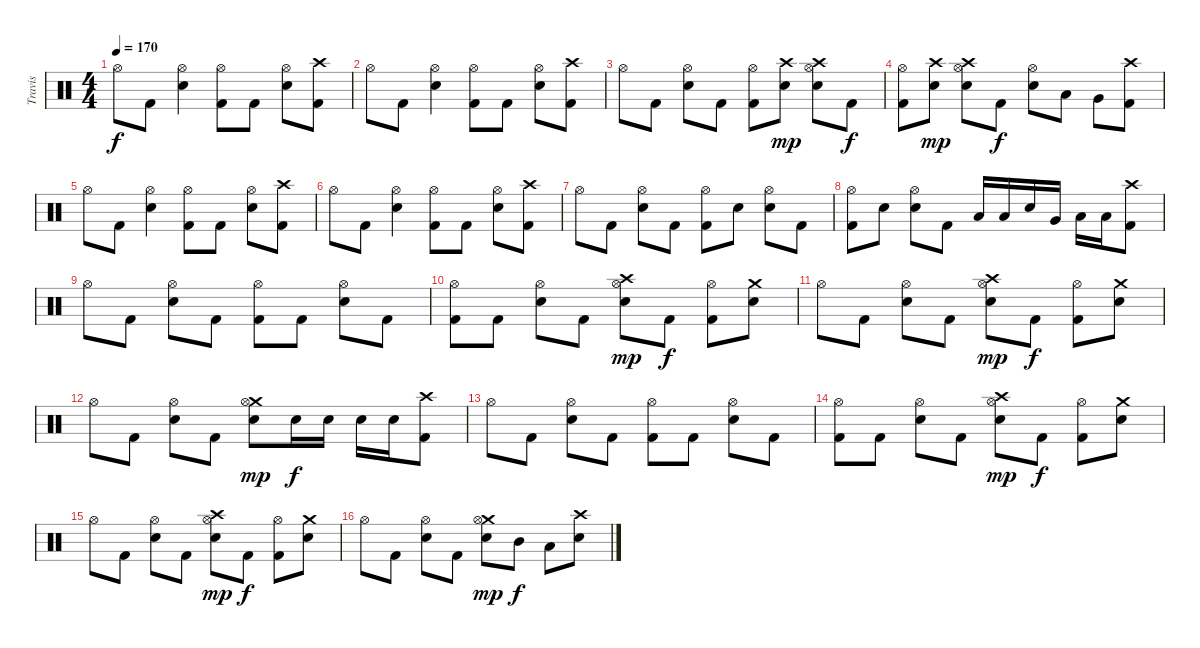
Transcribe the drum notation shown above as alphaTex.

\track ("Travis" "Travis") {instrument percussion}
\staff {score}
\articulation defaults
\ts (4 4)
\tempo 170
\clef neutral
\ks c "Hi-Hat (open)".8{dy f} "Kick (hit) 2".8
("Hi-Hat (open)" "Snare (hit) 2").4 ("Hi-Hat (open)" "Kick (hit) 2").8 "Kick (hit) 2".8 ("Hi-Hat (open)" "Snare (hit) 2").8 ("Crash high (hit)" "Kick (hit) 2").8 |
"Hi-Hat (open)".8 "Kick (hit) 2".8 ("Hi-Hat (open)" "Snare (hit) 2").4 ("Hi-Hat (open)" "Kick (hit) 2").8 "Kick (hit) 2".8 ("Hi-Hat (open)" "Snare (hit) 2").8 ("Crash high (hit)" "Kick (hit) 2").8 |
"Hi-Hat (open)".8 "Kick (hit) 2".8 ("Hi-Hat (open)" "Snare (hit) 2").8 "Kick (hit) 2".8 ("Hi-Hat (open)" "Kick (hit) 2").8 ("Crash high (hit)" "Snare (hit) 2").8{dy mp} ("Crash high (hit)" "Hi-Hat (open)" "Snare (hit) 2").8 "Kick (hit) 2".8{dy f} |
("Hi-Hat (open)" "Kick (hit) 2").8 ("Crash high (hit)" "Snare (hit) 2").8{dy mp} ("Crash high (hit)" "Hi-Hat (open)" "Snare (hit) 2").8 "Kick (hit) 2".8{dy f} ("Hi-Hat (open)" "Snare (hit) 2").8 "Low Tom (hit)".8 "Very Low Tom (hit)".8 ("Crash high (hit)" "Kick (hit) 2").8 |
"Hi-Hat (open)".8 "Kick (hit) 2".8 ("Hi-Hat (open)" "Snare (hit) 2").4 ("Hi-Hat (open)" "Kick (hit) 2").8 "Kick (hit) 2".8 ("Hi-Hat (open)" "Snare (hit) 2").8 ("Crash high (hit)" "Kick (hit) 2").8 |
"Hi-Hat (open)".8 "Kick (hit) 2".8 ("Hi-Hat (open)" "Snare (hit) 2").4 ("Hi-Hat (open)" "Kick (hit) 2").8 "Kick (hit) 2".8 ("Hi-Hat (open)" "Snare (hit) 2").8 ("Crash high (hit)" "Kick (hit) 2").8 |
"Hi-Hat (open)".8 "Kick (hit) 2".8 ("Hi-Hat (open)" "Snare (hit) 2").8 "Kick (hit) 2".8 ("Hi-Hat (open)" "Kick (hit) 2").8 "Snare (hit) 2".8 ("Hi-Hat (open)" "Snare (hit) 2").8 "Kick (hit) 2".8 |
("Hi-Hat (open)" "Kick (hit) 2").8 "Snare (hit) 2".8 ("Hi-Hat (open)" "Snare (hit) 2").8 "Kick (hit) 2".8 "Low Tom (hit)".16 "Low Tom (hit)".16 "Snare (hit) 2".16 "Very Low Tom (hit)".16 "Low Floor Tom (hit)".16 "Low Floor Tom (hit)".16 ("Crash high (hit)" "Kick (hit) 2").8 |
"Hi-Hat (open)".8 "Kick (hit) 2".8 ("Hi-Hat (open)" "Snare (hit) 2").8 "Kick (hit) 2".8 ("Hi-Hat (open)" "Kick (hit) 2").8 "Kick (hit) 2".8 ("Hi-Hat (open)" "Snare (hit) 2").8 "Kick (hit) 2".8 |
("Hi-Hat (open)" "Kick (hit) 2").8 "Kick (hit) 2".8 ("Hi-Hat (open)" "Snare (hit) 2").8 "Kick (hit) 2".8 ("Crash high (hit)" "Hi-Hat (open)" "Snare (hit) 2").8{dy mp} "Kick (hit) 2".8{dy f} ("Hi-Hat (open)" "Kick (hit) 2").8 ("Crash medium (hit)" "Snare (hit) 2").8 |
"Hi-Hat (open)".8 "Kick (hit) 2".8 ("Hi-Hat (open)" "Snare (hit) 2").8 "Kick (hit) 2".8 ("Crash high (hit)" "Hi-Hat (open)" "Snare (hit) 2").8{dy mp} "Kick (hit) 2".8{dy f} ("Hi-Hat (open)" "Kick (hit) 2").8 ("Crash medium (hit)" "Snare (hit) 2").8 |
"Hi-Hat (open)".8 "Kick (hit) 2".8 ("Hi-Hat (open)" "Snare (hit) 2").8 "Kick (hit) 2".8 ("Crash medium (hit)" "Hi-Hat (open)" "Snare (hit) 2").8{dy mp} "Snare (hit) 2".16{dy f} "Snare (hit) 2".16 "Snare (hit) 2".16 "Snare (hit) 2".16 ("Crash high (hit)" "Kick (hit) 2").8 |
"Hi-Hat (open)".8 "Kick (hit) 2".8 ("Hi-Hat (open)" "Snare (hit) 2").8 "Kick (hit) 2".8 ("Hi-Hat (open)" "Kick (hit) 2").8 "Kick (hit) 2".8 ("Hi-Hat (open)" "Snare (hit) 2").8 "Kick (hit) 2".8 |
("Hi-Hat (open)" "Kick (hit) 2").8 "Kick (hit) 2".8 ("Hi-Hat (open)" "Snare (hit) 2").8 "Kick (hit) 2".8 ("Crash high (hit)" "Hi-Hat (open)" "Snare (hit) 2").8{dy mp} "Kick (hit) 2".8{dy f} ("Hi-Hat (open)" "Kick (hit) 2").8 ("Crash medium (hit)" "Snare (hit) 2").8 |
"Hi-Hat (open)".8 "Kick (hit) 2".8 ("Hi-Hat (open)" "Snare (hit) 2").8 "Kick (hit) 2".8 ("Crash high (hit)" "Hi-Hat (open)" "Snare (hit) 2").8{dy mp} "Kick (hit) 2".8{dy f} ("Hi-Hat (open)" "Kick (hit) 2").8 ("Crash medium (hit)" "Snare (hit) 2").8 |
"Hi-Hat (open)".8 "Kick (hit) 2".8 ("Hi-Hat (open)" "Snare (hit) 2").8 "Kick (hit) 2".8 ("Crash medium (hit)" "Hi-Hat (open)" "Snare (hit) 2").8{dy mp} "Mid Tom (hit)".8{dy f} "Low Tom (hit)".8 ("Crash high (hit)" "Snare (hit) 2").8
